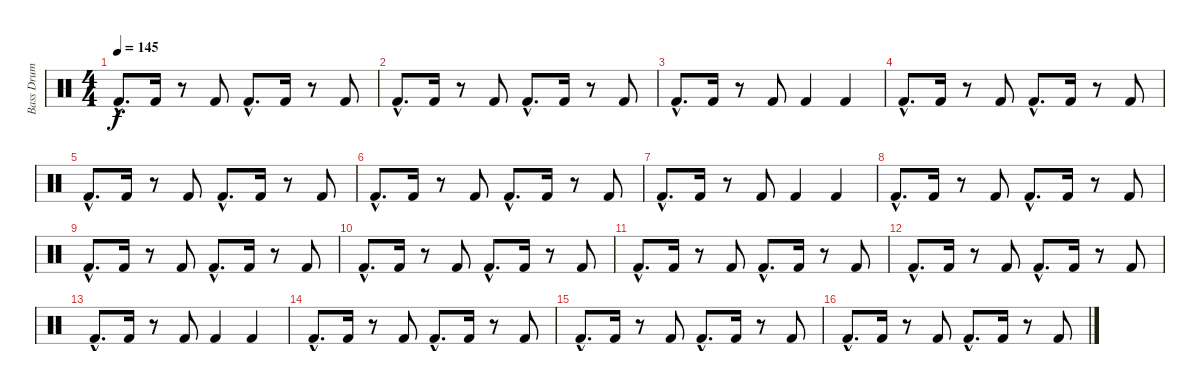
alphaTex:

\track ("Bass Drum" "Bass Drum") {instrument percussion}
\staff {score}
\articulation defaults
\ts (4 4)
\tempo 145
\clef neutral
\ks c "Kick (hit) 2"{hac}.8{d dy f} "Kick (hit) 2".16
r.8 "Kick (hit) 2".8 "Kick (hit) 2"{hac}.8{d} "Kick (hit) 2".16 r.8 "Kick (hit) 2".8 |
"Kick (hit) 2"{hac}.8{d} "Kick (hit) 2".16 r.8 "Kick (hit) 2".8 "Kick (hit) 2"{hac}.8{d} "Kick (hit) 2".16 r.8 "Kick (hit) 2".8 |
"Kick (hit) 2"{hac}.8{d} "Kick (hit) 2".16 r.8 "Kick (hit) 2".8 "Kick (hit) 2".4 "Kick (hit) 2".4 |
"Kick (hit) 2"{hac}.8{d} "Kick (hit) 2".16 r.8 "Kick (hit) 2".8 "Kick (hit) 2"{hac}.8{d} "Kick (hit) 2".16 r.8 "Kick (hit) 2".8 |
"Kick (hit) 2"{hac}.8{d} "Kick (hit) 2".16 r.8 "Kick (hit) 2".8 "Kick (hit) 2"{hac}.8{d} "Kick (hit) 2".16 r.8 "Kick (hit) 2".8 |
"Kick (hit) 2"{hac}.8{d} "Kick (hit) 2".16 r.8 "Kick (hit) 2".8 "Kick (hit) 2"{hac}.8{d} "Kick (hit) 2".16 r.8 "Kick (hit) 2".8 |
"Kick (hit) 2"{hac}.8{d} "Kick (hit) 2".16 r.8 "Kick (hit) 2".8 "Kick (hit) 2".4 "Kick (hit) 2".4 |
"Kick (hit) 2"{hac}.8{d} "Kick (hit) 2".16 r.8 "Kick (hit) 2".8 "Kick (hit) 2"{hac}.8{d} "Kick (hit) 2".16 r.8 "Kick (hit) 2".8 |
"Kick (hit) 2"{hac}.8{d} "Kick (hit) 2".16 r.8 "Kick (hit) 2".8 "Kick (hit) 2"{hac}.8{d} "Kick (hit) 2".16 r.8 "Kick (hit) 2".8 |
"Kick (hit) 2"{hac}.8{d} "Kick (hit) 2".16 r.8 "Kick (hit) 2".8 "Kick (hit) 2"{hac}.8{d} "Kick (hit) 2".16 r.8 "Kick (hit) 2".8 |
"Kick (hit) 2"{hac}.8{d} "Kick (hit) 2".16 r.8 "Kick (hit) 2".8 "Kick (hit) 2"{hac}.8{d} "Kick (hit) 2".16 r.8 "Kick (hit) 2".8 |
"Kick (hit) 2"{hac}.8{d} "Kick (hit) 2".16 r.8 "Kick (hit) 2".8 "Kick (hit) 2"{hac}.8{d} "Kick (hit) 2".16 r.8 "Kick (hit) 2".8 |
"Kick (hit) 2"{hac}.8{d} "Kick (hit) 2".16 r.8 "Kick (hit) 2".8 "Kick (hit) 2".4 "Kick (hit) 2".4 |
"Kick (hit) 2"{hac}.8{d} "Kick (hit) 2".16 r.8 "Kick (hit) 2".8 "Kick (hit) 2"{hac}.8{d} "Kick (hit) 2".16 r.8 "Kick (hit) 2".8 |
"Kick (hit) 2"{hac}.8{d} "Kick (hit) 2".16 r.8 "Kick (hit) 2".8 "Kick (hit) 2"{hac}.8{d} "Kick (hit) 2".16 r.8 "Kick (hit) 2".8 |
"Kick (hit) 2"{hac}.8{d} "Kick (hit) 2".16 r.8 "Kick (hit) 2".8 "Kick (hit) 2"{hac}.8{d} "Kick (hit) 2".16 r.8 "Kick (hit) 2".8
